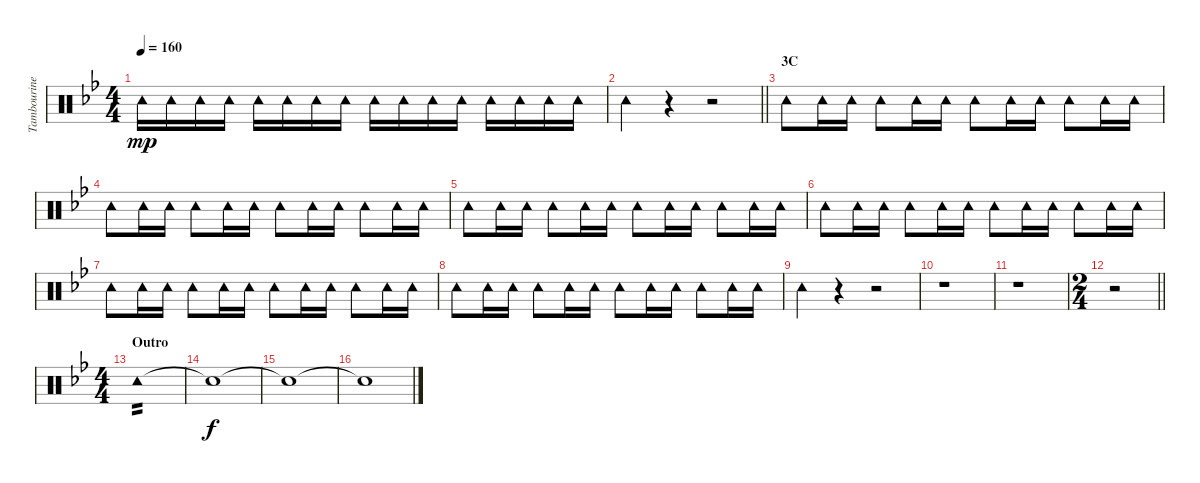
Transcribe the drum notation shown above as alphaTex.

\track ("Tambourine" "Tambourine") {instrument percussion}
\staff {score}
\articulation defaults
\ts (4 4)
\tempo 160
\clef neutral
\ks bb "Tambourine (hit)".16{dy mp} "Tambourine (hit)".16 "Tambourine (hit)".16 "Tambourine (hit)".16 "Tambourine (hit)".16 "Tambourine (hit)".16 "Tambourine (hit)".16 "Tambourine (hit)".16 "Tambourine (hit)".16 "Tambourine (hit)".16 "Tambourine (hit)".16 "Tambourine (hit)".16 "Tambourine (hit)".16 "Tambourine (hit)".16 "Tambourine (hit)".16 "Tambourine (hit)".16
|
\barLineRight lightlight "Tambourine (hit)".4
r.4 r.2 |
\section ("" "3C")
"Tambourine (hit)".8 "Tambourine (hit)".16 "Tambourine (hit)".16 "Tambourine (hit)".8 "Tambourine (hit)".16 "Tambourine (hit)".16 "Tambourine (hit)".8 "Tambourine (hit)".16 "Tambourine (hit)".16 "Tambourine (hit)".8 "Tambourine (hit)".16 "Tambourine (hit)".16 |
"Tambourine (hit)".8 "Tambourine (hit)".16 "Tambourine (hit)".16 "Tambourine (hit)".8 "Tambourine (hit)".16 "Tambourine (hit)".16 "Tambourine (hit)".8 "Tambourine (hit)".16 "Tambourine (hit)".16 "Tambourine (hit)".8 "Tambourine (hit)".16 "Tambourine (hit)".16 |
"Tambourine (hit)".8 "Tambourine (hit)".16 "Tambourine (hit)".16 "Tambourine (hit)".8 "Tambourine (hit)".16 "Tambourine (hit)".16 "Tambourine (hit)".8 "Tambourine (hit)".16 "Tambourine (hit)".16 "Tambourine (hit)".8 "Tambourine (hit)".16 "Tambourine (hit)".16 |
"Tambourine (hit)".8 "Tambourine (hit)".16 "Tambourine (hit)".16 "Tambourine (hit)".8 "Tambourine (hit)".16 "Tambourine (hit)".16 "Tambourine (hit)".8 "Tambourine (hit)".16 "Tambourine (hit)".16 "Tambourine (hit)".8 "Tambourine (hit)".16 "Tambourine (hit)".16 |
"Tambourine (hit)".8 "Tambourine (hit)".16 "Tambourine (hit)".16 "Tambourine (hit)".8 "Tambourine (hit)".16 "Tambourine (hit)".16 "Tambourine (hit)".8 "Tambourine (hit)".16 "Tambourine (hit)".16 "Tambourine (hit)".8 "Tambourine (hit)".16 "Tambourine (hit)".16 |
"Tambourine (hit)".8 "Tambourine (hit)".16 "Tambourine (hit)".16 "Tambourine (hit)".8 "Tambourine (hit)".16 "Tambourine (hit)".16 "Tambourine (hit)".8 "Tambourine (hit)".16 "Tambourine (hit)".16 "Tambourine (hit)".8 "Tambourine (hit)".16 "Tambourine (hit)".16 |
"Tambourine (hit)".4 r.4 r.2 |
r.1 |
r.1 |
\ts (2 4)
\barLineRight lightlight
r.2 |
\ts (4 4)
\section ("" "Outro")
"Tambourine (hit)".1{tp 2} |
"Snare (hit)"{t}.1{dy f} |
"Snare (hit)"{t}.1 |
"Snare (hit)"{t}.1
